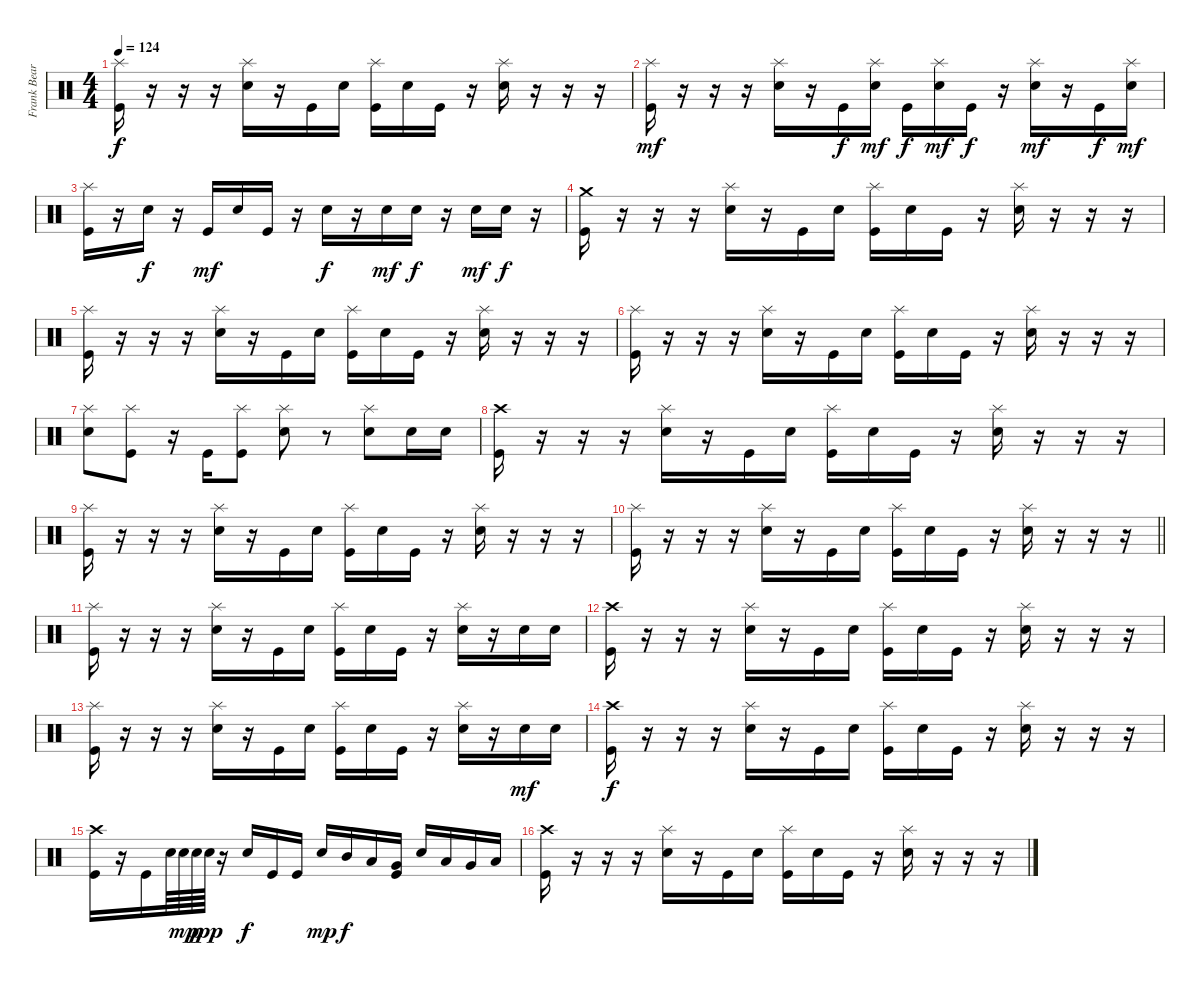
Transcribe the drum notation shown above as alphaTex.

\track ("Frank Beard" "Frank Bear") {instrument percussion}
\staff {score}
\articulation defaults
\ts (4 4)
\tempo 124
\clef neutral
\ks c
("Splash (hit)" "Kick (hit)").16{dy f} r.16 r.16 r.16 ("Splash (hit)" "Electric Snare (hit)").16 r.16 "Kick (hit)".16 "Electric Snare (hit)".16 ("Splash (hit)" "Kick (hit)").16 "Electric Snare (hit)".16 "Kick (hit)".16 r.16 ("Splash (hit)" "Electric Snare (hit)").16 r.16 r.16 r.16 |
("Splash (hit)" "Kick (hit)").16{dy mf} r.16 r.16 r.16 ("Splash (hit)" "Electric Snare (hit)").16 r.16 "Kick (hit)".16{dy f} ("Splash (hit)" "Electric Snare (hit)").16{dy mf} "Kick (hit)".16{dy f} ("Splash (hit)" "Electric Snare (hit)").16{dy mf} "Kick (hit)".16{dy f} r.16 ("Splash (hit)" "Electric Snare (hit)").16{dy mf} r.16 "Kick (hit)".16{dy f} ("Splash (hit)" "Electric Snare (hit)").16{dy mf} |
("Splash (hit)" "Kick (hit)").16 r.16 "Electric Snare (hit)".16{dy f} r.16 "Kick (hit)".16{dy mf} "Electric Snare (hit)".16 "Kick (hit)".16 r.16 "Electric Snare (hit)".16{dy f} r.16 "Electric Snare (hit)".16{dy mf} "Electric Snare (hit)".16{dy f} r.16 "Electric Snare (hit)".16{dy mf} "Electric Snare (hit)".16{dy f} r.16 |
("Crash medium (hit)" "Kick (hit)").16 r.16 r.16 r.16 ("Splash (hit)" "Electric Snare (hit)").16 r.16 "Kick (hit)".16 "Electric Snare (hit)".16 ("Splash (hit)" "Kick (hit)").16 "Electric Snare (hit)".16 "Kick (hit)".16 r.16 ("Splash (hit)" "Electric Snare (hit)").16 r.16 r.16 r.16 |
("Splash (hit)" "Kick (hit)").16 r.16 r.16 r.16 ("Splash (hit)" "Electric Snare (hit)").16 r.16 "Kick (hit)".16 "Electric Snare (hit)".16 ("Splash (hit)" "Kick (hit)").16 "Electric Snare (hit)".16 "Kick (hit)".16 r.16 ("Splash (hit)" "Electric Snare (hit)").16 r.16 r.16 r.16 |
("Splash (hit)" "Kick (hit)").16 r.16 r.16 r.16 ("Splash (hit)" "Electric Snare (hit)").16 r.16 "Kick (hit)".16 "Electric Snare (hit)".16 ("Splash (hit)" "Kick (hit)").16 "Electric Snare (hit)".16 "Kick (hit)".16 r.16 ("Splash (hit)" "Electric Snare (hit)").16 r.16 r.16 r.16 |
("Splash (hit)" "Electric Snare (hit)").8 ("Splash (hit)" "Kick (hit)").8 r.16 "Kick (hit)".16 ("Splash (hit)" "Kick (hit)").8 ("Splash (hit)" "Electric Snare (hit)").8 r.8 ("Splash (hit)" "Electric Snare (hit)").8 "Electric Snare (hit)".16 "Electric Snare (hit)".16 |
("Crash high (hit)" "Kick (hit)").16 r.16 r.16 r.16 ("Splash (hit)" "Electric Snare (hit)").16 r.16 "Kick (hit)".16 "Electric Snare (hit)".16 ("Splash (hit)" "Kick (hit)").16 "Electric Snare (hit)".16 "Kick (hit)".16 r.16 ("Splash (hit)" "Electric Snare (hit)").16 r.16 r.16 r.16 |
("Splash (hit)" "Kick (hit)").16 r.16 r.16 r.16 ("Splash (hit)" "Electric Snare (hit)").16 r.16 "Kick (hit)".16 "Electric Snare (hit)".16 ("Splash (hit)" "Kick (hit)").16 "Electric Snare (hit)".16 "Kick (hit)".16 r.16 ("Splash (hit)" "Electric Snare (hit)").16 r.16 r.16 r.16 |
\barLineRight lightlight
("Splash (hit)" "Kick (hit)").16 r.16 r.16 r.16 ("Splash (hit)" "Electric Snare (hit)").16 r.16 "Kick (hit)".16 "Electric Snare (hit)".16 ("Splash (hit)" "Kick (hit)").16 "Electric Snare (hit)".16 "Kick (hit)".16 r.16 ("Splash (hit)" "Electric Snare (hit)").16 r.16 r.16 r.16 |
("Splash (hit)" "Kick (hit)").16 r.16 r.16 r.16 ("Splash (hit)" "Electric Snare (hit)").16 r.16 "Kick (hit)".16 "Electric Snare (hit)".16 ("Splash (hit)" "Kick (hit)").16 "Electric Snare (hit)".16 "Kick (hit)".16 r.16 ("Splash (hit)" "Electric Snare (hit)").16 r.16 "Electric Snare (hit)".16 "Electric Snare (hit)".16 |
("Crash high (hit)" "Kick (hit)").16 r.16 r.16 r.16 ("Splash (hit)" "Electric Snare (hit)").16 r.16 "Kick (hit)".16 "Electric Snare (hit)".16 ("Splash (hit)" "Kick (hit)").16 "Electric Snare (hit)".16 "Kick (hit)".16 r.16 ("Splash (hit)" "Electric Snare (hit)").16 r.16 r.16 r.16 |
("Splash (hit)" "Kick (hit)").16 r.16 r.16 r.16 ("Splash (hit)" "Electric Snare (hit)").16 r.16 "Kick (hit)".16 "Electric Snare (hit)".16 ("Splash (hit)" "Kick (hit)").16 "Electric Snare (hit)".16 "Kick (hit)".16 r.16 ("Splash (hit)" "Electric Snare (hit)").16 r.16 "Electric Snare (hit)".16{dy mf} "Electric Snare (hit)".16 |
("Crash high (hit)" "Kick (hit)").16{dy f} r.16 r.16 r.16 ("Splash (hit)" "Electric Snare (hit)").16 r.16 "Kick (hit)".16 "Electric Snare (hit)".16 ("Splash (hit)" "Kick (hit)").16 "Electric Snare (hit)".16 "Kick (hit)".16 r.16 ("Splash (hit)" "Electric Snare (hit)").16 r.16 r.16 r.16 |
("Crash high (hit)" "Kick (hit)").16 r.16 "Kick (hit)".16 "Electric Snare (hit)".64 "Electric Snare (hit)".64{dy mp} "Electric Snare (hit)".64{dy p} "Electric Snare (hit)".64{dy pp} r.16 "Electric Snare (hit)".16{dy f} "Kick (hit)".16 "Kick (hit)".16 "Electric Snare (hit)".16{dy mp} "Mid Tom (hit)".16{dy f} "Low Tom (hit)".16 ("Very Low Tom (hit)" "Kick (hit)").16 "Electric Snare (hit)".16 "Low Tom (hit)".16 "Very Low Tom (hit)".16 "Low Floor Tom (hit)".16 |
("Crash high (hit)" "Kick (hit)").16 r.16 r.16 r.16 ("Splash (hit)" "Electric Snare (hit)").16 r.16 "Kick (hit)".16 "Electric Snare (hit)".16 ("Splash (hit)" "Kick (hit)").16 "Electric Snare (hit)".16 "Kick (hit)".16 r.16 ("Splash (hit)" "Electric Snare (hit)").16 r.16 r.16 r.16
